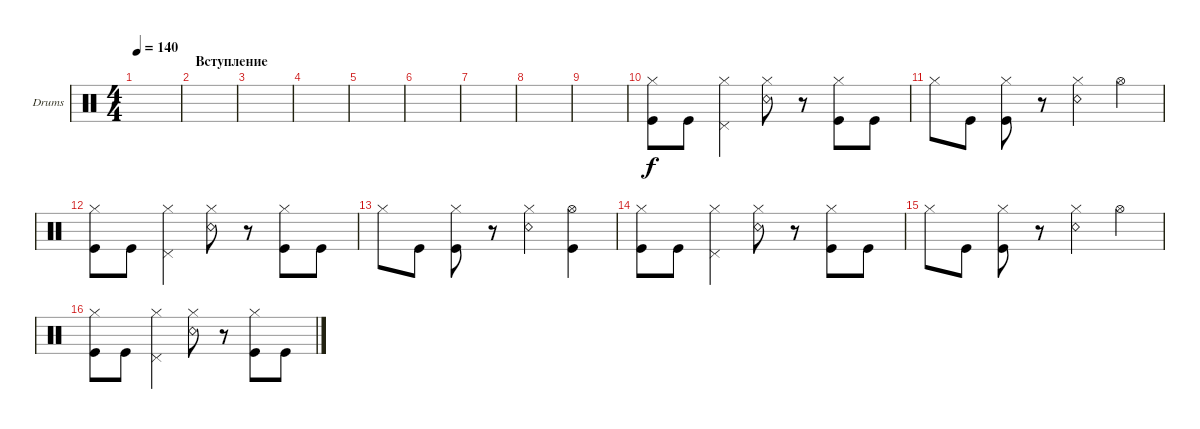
\defaultSystemsLayout 4
\bracketExtendMode groupsimilarinstruments
\firstSystemTrackNameOrientation horizontal
\otherSystemsTrackNameOrientation horizontal
\track ("Drumkit" "Drums") {instrument percussion}
\staff {score}
\articulation defaults
\ts (4 4)
\tempo 140
\clef neutral
\ks c
|
\section ("" "Вступление")
\scale
0.472222 |
\scale
0.263889 |
\scale
0.263889 |
\scale
0.333333 |
\scale
0.333333 |
\scale
0.333333 |
\scale
0.333333 |
\scale
0.333333 |
\scale
0.333333 ("Kick (hit)" "Hi-Hat (closed)").8 "Kick (hit)".8 ("Pedal Hi-Hat (hit)" "Hi-Hat (closed)").4 ("Snare (rim shot)" "Hi-Hat (closed)").8 r.8 ("Kick (hit)" "Hi-Hat (closed)").8 "Kick (hit)".8 |
\scale
0.333333 "Hi-Hat (closed)".8 "Kick (hit)".8 ("Kick (hit)" "Hi-Hat (closed)").8 r.8 ("Snare (rim shot)" "Hi-Hat (closed)").4 "Hi-Hat (open)".4 |
\scale
0.333333 ("Kick (hit)" "Hi-Hat (closed)").8 "Kick (hit)".8 ("Pedal Hi-Hat (hit)" "Hi-Hat (closed)").4 ("Snare (rim shot)" "Hi-Hat (closed)").8 r.8 ("Kick (hit)" "Hi-Hat (closed)").8 "Kick (hit)".8 |
\scale
0.333333 "Hi-Hat (closed)".8 "Kick (hit)".8 ("Kick (hit)" "Hi-Hat (closed)").8 r.8 ("Snare (rim shot)" "Hi-Hat (closed)").4 ("Hi-Hat (open)" "Kick (hit)").4 |
\scale
0.333333 ("Kick (hit)" "Hi-Hat (closed)").8 "Kick (hit)".8 ("Pedal Hi-Hat (hit)" "Hi-Hat (closed)").4 ("Snare (rim shot)" "Hi-Hat (closed)").8 r.8 ("Kick (hit)" "Hi-Hat (closed)").8 "Kick (hit)".8 |
\scale
0.333333 "Hi-Hat (closed)".8 "Kick (hit)".8 ("Kick (hit)" "Hi-Hat (closed)").8 r.8 ("Snare (rim shot)" "Hi-Hat (closed)").4 "Hi-Hat (open)".4 |
\scale
0.333333 ("Kick (hit)" "Hi-Hat (closed)").8 "Kick (hit)".8 ("Pedal Hi-Hat (hit)" "Hi-Hat (closed)").4 ("Snare (rim shot)" "Hi-Hat (closed)").8 r.8 ("Kick (hit)" "Hi-Hat (closed)").8 "Kick (hit)".8
